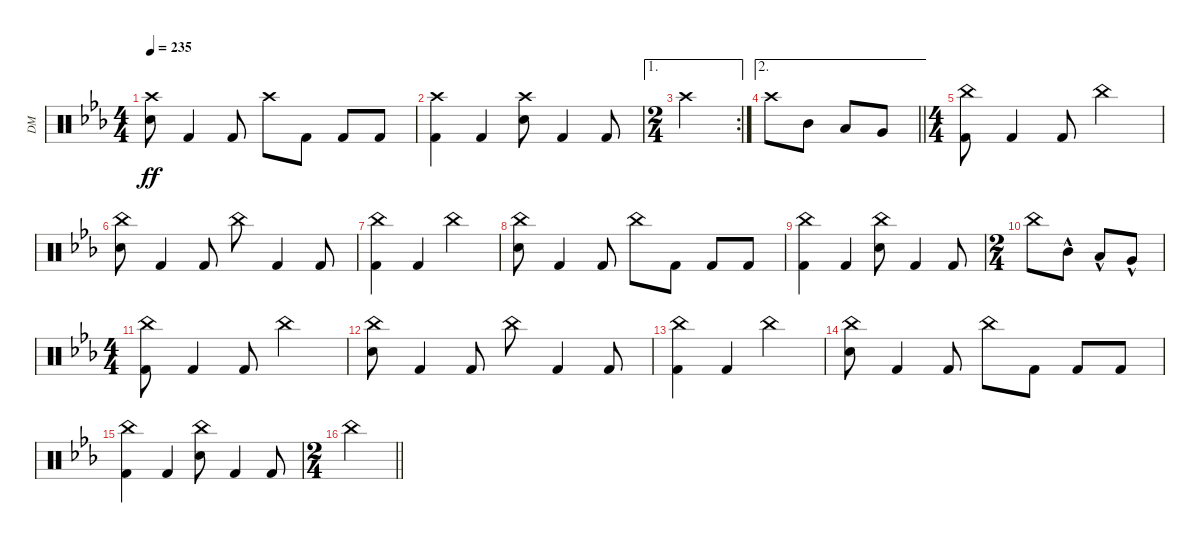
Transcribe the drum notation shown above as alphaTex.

\track ("DM" "DM") {instrument percussion}
\staff {score}
\articulation defaults
\ts (4 4)
\tempo 235
\clef neutral
\ks cminor
("Crash high (hit)" "Electric Snare (hit)").8{dy ff} "Kick (hit) 2".4 "Kick (hit) 2".8 "Crash high (hit)".8 "Kick (hit) 2".8 "Kick (hit) 2".8 "Kick (hit) 2".8 |
("Crash high (hit)" "Kick (hit) 2").4 "Kick (hit) 2".4 ("Crash high (hit)" "Electric Snare (hit)").8 "Kick (hit) 2".4 "Kick (hit) 2".8 |
\ae 1
\rc 2
\ts (2 4)
"Crash high (hit)".2 |
\ae 2
\barLineRight lightlight "Crash high (hit)".8 "Mid Tom (hit)".8 "Low Tom (hit)".8 "Very Low Tom (hit)".8
|
\ts (4 4)
\section ("" "")
("China (hit)" "Kick (hit) 2").8 "Kick (hit) 2".4 "Kick (hit) 2".8 "China (hit)".2 |
("China (hit)" "Electric Snare (hit)").8 "Kick (hit) 2".4 "Kick (hit) 2".8 "China (hit)".8 "Kick (hit) 2".4 "Kick (hit) 2".8 |
("China (hit)" "Kick (hit) 2").4 "Kick (hit) 2".4 "China (hit)".2 |
("China (hit)" "Electric Snare (hit)").8 "Kick (hit) 2".4 "Kick (hit) 2".8 "China (hit)".8 "Kick (hit) 2".8 "Kick (hit) 2".8 "Kick (hit) 2".8 |
("China (hit)" "Kick (hit) 2").4 "Kick (hit) 2".4 ("China (hit)" "Electric Snare (hit)").8 "Kick (hit) 2".4 "Kick (hit) 2".8 |
\ts (2 4)
"China (hit)".8 "Mid Tom (hit)"{hac}.8 "Low Tom (hit)"{hac}.8 "Very Low Tom (hit)"{hac}.8 |
\ts (4 4)
("China (hit)" "Kick (hit) 2").8 "Kick (hit) 2".4 "Kick (hit) 2".8 "China (hit)".2 |
("China (hit)" "Electric Snare (hit)").8 "Kick (hit) 2".4 "Kick (hit) 2".8 "China (hit)".8 "Kick (hit) 2".4 "Kick (hit) 2".8 |
("China (hit)" "Kick (hit) 2").4 "Kick (hit) 2".4 "China (hit)".2 |
("China (hit)" "Electric Snare (hit)").8 "Kick (hit) 2".4 "Kick (hit) 2".8 "China (hit)".8 "Kick (hit) 2".8 "Kick (hit) 2".8 "Kick (hit) 2".8 |
("China (hit)" "Kick (hit) 2").4 "Kick (hit) 2".4 ("China (hit)" "Electric Snare (hit)").8 "Kick (hit) 2".4 "Kick (hit) 2".8 |
\ts (2 4)
\barLineRight lightlight "China (hit)".2
